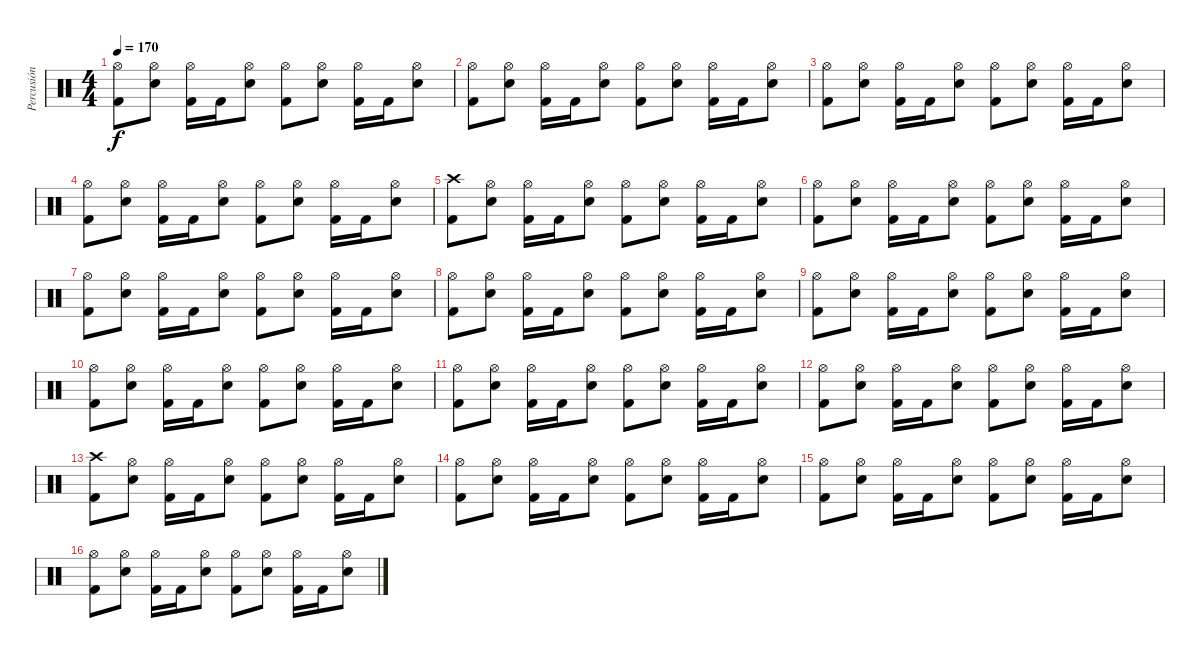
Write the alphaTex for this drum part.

\track ("Percusión" "Percusión") {instrument percussion}
\staff {score}
\articulation defaults
\ts (4 4)
\tempo 170
\clef neutral
\ks c
("Kick (hit) 2" "Hi-Hat (open)").8{dy f} ("Snare (hit) 2" "Hi-Hat (open)").8 ("Kick (hit) 2" "Hi-Hat (open)").16 "Kick (hit) 2".16 ("Snare (hit) 2" "Hi-Hat (open)").8 ("Kick (hit) 2" "Hi-Hat (open)").8 ("Snare (hit) 2" "Hi-Hat (open)").8 ("Kick (hit) 2" "Hi-Hat (open)").16 "Kick (hit) 2".16 ("Snare (hit) 2" "Hi-Hat (open)").8 |
("Kick (hit) 2" "Hi-Hat (open)").8 ("Snare (hit) 2" "Hi-Hat (open)").8 ("Kick (hit) 2" "Hi-Hat (open)").16 "Kick (hit) 2".16 ("Snare (hit) 2" "Hi-Hat (open)").8 ("Kick (hit) 2" "Hi-Hat (open)").8 ("Snare (hit) 2" "Hi-Hat (open)").8 ("Kick (hit) 2" "Hi-Hat (open)").16 "Kick (hit) 2".16 ("Snare (hit) 2" "Hi-Hat (open)").8 |
("Kick (hit) 2" "Hi-Hat (open)").8 ("Snare (hit) 2" "Hi-Hat (open)").8 ("Kick (hit) 2" "Hi-Hat (open)").16 "Kick (hit) 2".16 ("Snare (hit) 2" "Hi-Hat (open)").8 ("Kick (hit) 2" "Hi-Hat (open)").8 ("Snare (hit) 2" "Hi-Hat (open)").8 ("Kick (hit) 2" "Hi-Hat (open)").16 "Kick (hit) 2".16 ("Snare (hit) 2" "Hi-Hat (open)").8 |
("Kick (hit) 2" "Hi-Hat (open)").8 ("Snare (hit) 2" "Hi-Hat (open)").8 ("Kick (hit) 2" "Hi-Hat (open)").16 "Kick (hit) 2".16 ("Snare (hit) 2" "Hi-Hat (open)").8 ("Kick (hit) 2" "Hi-Hat (open)").8 ("Snare (hit) 2" "Hi-Hat (open)").8 ("Kick (hit) 2" "Hi-Hat (open)").16 "Kick (hit) 2".16 ("Snare (hit) 2" "Hi-Hat (open)").8 |
("Kick (hit) 2" "Crash high (hit)").8 ("Snare (hit) 2" "Hi-Hat (open)").8 ("Kick (hit) 2" "Hi-Hat (open)").16 "Kick (hit) 2".16 ("Snare (hit) 2" "Hi-Hat (open)").8 ("Kick (hit) 2" "Hi-Hat (open)").8 ("Snare (hit) 2" "Hi-Hat (open)").8 ("Kick (hit) 2" "Hi-Hat (open)").16 "Kick (hit) 2".16 ("Snare (hit) 2" "Hi-Hat (open)").8 |
("Kick (hit) 2" "Hi-Hat (open)").8 ("Snare (hit) 2" "Hi-Hat (open)").8 ("Kick (hit) 2" "Hi-Hat (open)").16 "Kick (hit) 2".16 ("Snare (hit) 2" "Hi-Hat (open)").8 ("Kick (hit) 2" "Hi-Hat (open)").8 ("Snare (hit) 2" "Hi-Hat (open)").8 ("Kick (hit) 2" "Hi-Hat (open)").16 "Kick (hit) 2".16 ("Snare (hit) 2" "Hi-Hat (open)").8 |
("Kick (hit) 2" "Hi-Hat (open)").8 ("Snare (hit) 2" "Hi-Hat (open)").8 ("Kick (hit) 2" "Hi-Hat (open)").16 "Kick (hit) 2".16 ("Snare (hit) 2" "Hi-Hat (open)").8 ("Kick (hit) 2" "Hi-Hat (open)").8 ("Snare (hit) 2" "Hi-Hat (open)").8 ("Kick (hit) 2" "Hi-Hat (open)").16 "Kick (hit) 2".16 ("Snare (hit) 2" "Hi-Hat (open)").8 |
("Kick (hit) 2" "Hi-Hat (open)").8 ("Snare (hit) 2" "Hi-Hat (open)").8 ("Kick (hit) 2" "Hi-Hat (open)").16 "Kick (hit) 2".16 ("Snare (hit) 2" "Hi-Hat (open)").8 ("Kick (hit) 2" "Hi-Hat (open)").8 ("Snare (hit) 2" "Hi-Hat (open)").8 ("Kick (hit) 2" "Hi-Hat (open)").16 "Kick (hit) 2".16 ("Snare (hit) 2" "Hi-Hat (open)").8 |
("Kick (hit) 2" "Hi-Hat (open)").8 ("Snare (hit) 2" "Hi-Hat (open)").8 ("Kick (hit) 2" "Hi-Hat (open)").16 "Kick (hit) 2".16 ("Snare (hit) 2" "Hi-Hat (open)").8 ("Kick (hit) 2" "Hi-Hat (open)").8 ("Snare (hit) 2" "Hi-Hat (open)").8 ("Kick (hit) 2" "Hi-Hat (open)").16 "Kick (hit) 2".16 ("Snare (hit) 2" "Hi-Hat (open)").8 |
("Kick (hit) 2" "Hi-Hat (open)").8 ("Snare (hit) 2" "Hi-Hat (open)").8 ("Kick (hit) 2" "Hi-Hat (open)").16 "Kick (hit) 2".16 ("Snare (hit) 2" "Hi-Hat (open)").8 ("Kick (hit) 2" "Hi-Hat (open)").8 ("Snare (hit) 2" "Hi-Hat (open)").8 ("Kick (hit) 2" "Hi-Hat (open)").16 "Kick (hit) 2".16 ("Snare (hit) 2" "Hi-Hat (open)").8 |
("Kick (hit) 2" "Hi-Hat (open)").8 ("Snare (hit) 2" "Hi-Hat (open)").8 ("Kick (hit) 2" "Hi-Hat (open)").16 "Kick (hit) 2".16 ("Snare (hit) 2" "Hi-Hat (open)").8 ("Kick (hit) 2" "Hi-Hat (open)").8 ("Snare (hit) 2" "Hi-Hat (open)").8 ("Kick (hit) 2" "Hi-Hat (open)").16 "Kick (hit) 2".16 ("Snare (hit) 2" "Hi-Hat (open)").8 |
("Kick (hit) 2" "Hi-Hat (open)").8 ("Snare (hit) 2" "Hi-Hat (open)").8 ("Kick (hit) 2" "Hi-Hat (open)").16 "Kick (hit) 2".16 ("Snare (hit) 2" "Hi-Hat (open)").8 ("Kick (hit) 2" "Hi-Hat (open)").8 ("Snare (hit) 2" "Hi-Hat (open)").8 ("Kick (hit) 2" "Hi-Hat (open)").16 "Kick (hit) 2".16 ("Snare (hit) 2" "Hi-Hat (open)").8 |
("Kick (hit) 2" "Crash high (hit)").8 ("Snare (hit) 2" "Hi-Hat (open)").8 ("Kick (hit) 2" "Hi-Hat (open)").16 "Kick (hit) 2".16 ("Snare (hit) 2" "Hi-Hat (open)").8 ("Kick (hit) 2" "Hi-Hat (open)").8 ("Snare (hit) 2" "Hi-Hat (open)").8 ("Kick (hit) 2" "Hi-Hat (open)").16 "Kick (hit) 2".16 ("Snare (hit) 2" "Hi-Hat (open)").8 |
("Kick (hit) 2" "Hi-Hat (open)").8 ("Snare (hit) 2" "Hi-Hat (open)").8 ("Kick (hit) 2" "Hi-Hat (open)").16 "Kick (hit) 2".16 ("Snare (hit) 2" "Hi-Hat (open)").8 ("Kick (hit) 2" "Hi-Hat (open)").8 ("Snare (hit) 2" "Hi-Hat (open)").8 ("Kick (hit) 2" "Hi-Hat (open)").16 "Kick (hit) 2".16 ("Snare (hit) 2" "Hi-Hat (open)").8 |
("Kick (hit) 2" "Hi-Hat (open)").8 ("Snare (hit) 2" "Hi-Hat (open)").8 ("Kick (hit) 2" "Hi-Hat (open)").16 "Kick (hit) 2".16 ("Snare (hit) 2" "Hi-Hat (open)").8 ("Kick (hit) 2" "Hi-Hat (open)").8 ("Snare (hit) 2" "Hi-Hat (open)").8 ("Kick (hit) 2" "Hi-Hat (open)").16 "Kick (hit) 2".16 ("Snare (hit) 2" "Hi-Hat (open)").8 |
("Kick (hit) 2" "Hi-Hat (open)").8 ("Snare (hit) 2" "Hi-Hat (open)").8 ("Kick (hit) 2" "Hi-Hat (open)").16 "Kick (hit) 2".16 ("Snare (hit) 2" "Hi-Hat (open)").8 ("Kick (hit) 2" "Hi-Hat (open)").8 ("Snare (hit) 2" "Hi-Hat (open)").8 ("Kick (hit) 2" "Hi-Hat (open)").16 "Kick (hit) 2".16 ("Snare (hit) 2" "Hi-Hat (open)").8
